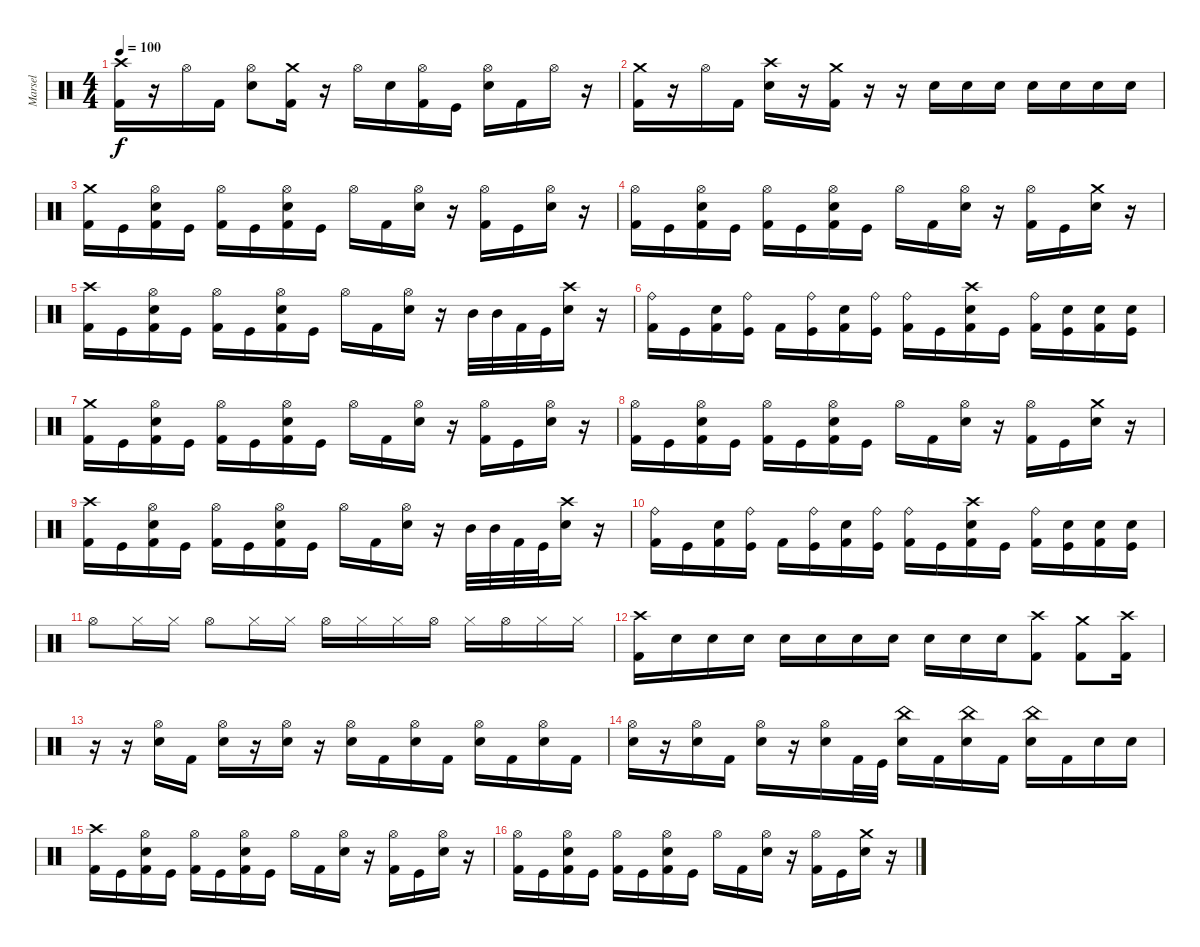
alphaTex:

\track ("Marsel" "Marsel") {instrument percussion}
\staff {score}
\articulation defaults
\ts (4 4)
\tempo 100
\clef neutral
\ks c
("Crash high (hit)" "Kick (hit) 2").16{dy f} r.16 "Hi-Hat (open)".16 "Kick (hit) 2".16 ("Hi-Hat (open)" "Snare (hit) 2").8 ("Crash medium (hit)" "Kick (hit) 2").16 r.16 "Hi-Hat (open)".16 "Snare (hit) 2".16 ("Hi-Hat (open)" "Kick (hit) 2").16 "Kick (hit)".16 ("Hi-Hat (open)" "Snare (hit) 2").16 "Kick (hit) 2".16 "Hi-Hat (open)".16 r.16 |
("Crash medium (hit)" "Kick (hit) 2").16 r.16 "Hi-Hat (open)".16 "Kick (hit) 2".16 ("Crash high (hit)" "Snare (hit) 2").16 r.16 ("Crash medium (hit)" "Kick (hit) 2").16 r.16 r.16 "Snare (hit) 2".16 "Snare (hit) 2".16 "Snare (hit) 2".16 "Snare (hit) 2".16 "Snare (hit) 2".16 "Snare (hit) 2".16 "Snare (hit) 2".16 |
("Crash medium (hit)" "Kick (hit) 2").16 "Kick (hit)".16 ("Hi-Hat (open)" "Snare (hit) 2" "Kick (hit) 2").16 "Kick (hit)".16 ("Hi-Hat (open)" "Kick (hit) 2").16 "Kick (hit)".16 ("Hi-Hat (open)" "Snare (hit) 2" "Kick (hit) 2").16 "Kick (hit)".16 "Hi-Hat (open)".16 "Kick (hit) 2".16 ("Hi-Hat (open)" "Snare (hit) 2").16 r.16 ("Hi-Hat (open)" "Kick (hit) 2").16 "Kick (hit)".16 ("Hi-Hat (open)" "Snare (hit) 2").16 r.16 |
("Hi-Hat (open)" "Kick (hit) 2").16 "Kick (hit)".16 ("Hi-Hat (open)" "Snare (hit) 2" "Kick (hit) 2").16 "Kick (hit)".16 ("Hi-Hat (open)" "Kick (hit) 2").16 "Kick (hit)".16 ("Hi-Hat (open)" "Snare (hit) 2" "Kick (hit) 2").16 "Kick (hit)".16 "Hi-Hat (open)".16 "Kick (hit) 2".16 ("Hi-Hat (open)" "Snare (hit) 2").16 r.16 ("Hi-Hat (open)" "Kick (hit) 2").16 "Kick (hit)".16 ("Crash medium (hit)" "Snare (hit) 2").16 r.16 |
("Crash high (hit)" "Kick (hit) 2").16 "Kick (hit)".16 ("Hi-Hat (open)" "Snare (hit) 2" "Kick (hit) 2").16 "Kick (hit)".16 ("Hi-Hat (open)" "Kick (hit) 2").16 "Kick (hit)".16 ("Hi-Hat (open)" "Snare (hit) 2" "Kick (hit) 2").16 "Kick (hit)".16 "Hi-Hat (open)".16 "Kick (hit) 2".16 ("Hi-Hat (open)" "Snare (hit) 2").16 r.16 "Mid Tom (hit)".32 "Mid Tom (hit)".32 "Kick (hit) 2".32 "Kick (hit)".32 ("Crash high (hit)" "Snare (hit) 2").16 r.16 |
("Ride (bell)" "Kick (hit) 2").16 "Kick (hit)".16 ("Snare (hit) 2" "Kick (hit) 2").16 ("Ride (bell)" "Kick (hit)").16 "Kick (hit) 2".16 ("Ride (bell)" "Kick (hit)").16 ("Snare (hit) 2" "Kick (hit) 2").16 ("Ride (bell)" "Kick (hit)").16 ("Ride (bell)" "Kick (hit) 2").16 "Kick (hit)".16 ("Crash high (hit)" "Snare (hit) 2" "Kick (hit) 2").16 "Kick (hit)".16 ("Ride (bell)" "Kick (hit) 2").16 ("Snare (hit) 2" "Kick (hit)").16 ("Snare (hit) 2" "Kick (hit) 2").16 ("Snare (hit) 2" "Kick (hit)").16 |
("Crash medium (hit)" "Kick (hit) 2").16 "Kick (hit)".16 ("Hi-Hat (open)" "Snare (hit) 2" "Kick (hit) 2").16 "Kick (hit)".16 ("Hi-Hat (open)" "Kick (hit) 2").16 "Kick (hit)".16 ("Hi-Hat (open)" "Snare (hit) 2" "Kick (hit) 2").16 "Kick (hit)".16 "Hi-Hat (open)".16 "Kick (hit) 2".16 ("Hi-Hat (open)" "Snare (hit) 2").16 r.16 ("Hi-Hat (open)" "Kick (hit) 2").16 "Kick (hit)".16 ("Hi-Hat (open)" "Snare (hit) 2").16 r.16 |
("Hi-Hat (open)" "Kick (hit) 2").16 "Kick (hit)".16 ("Hi-Hat (open)" "Snare (hit) 2" "Kick (hit) 2").16 "Kick (hit)".16 ("Hi-Hat (open)" "Kick (hit) 2").16 "Kick (hit)".16 ("Hi-Hat (open)" "Snare (hit) 2" "Kick (hit) 2").16 "Kick (hit)".16 "Hi-Hat (open)".16 "Kick (hit) 2".16 ("Hi-Hat (open)" "Snare (hit) 2").16 r.16 ("Hi-Hat (open)" "Kick (hit) 2").16 "Kick (hit)".16 ("Crash medium (hit)" "Snare (hit) 2").16 r.16 |
("Crash high (hit)" "Kick (hit) 2").16 "Kick (hit)".16 ("Hi-Hat (open)" "Snare (hit) 2" "Kick (hit) 2").16 "Kick (hit)".16 ("Hi-Hat (open)" "Kick (hit) 2").16 "Kick (hit)".16 ("Hi-Hat (open)" "Snare (hit) 2" "Kick (hit) 2").16 "Kick (hit)".16 "Hi-Hat (open)".16 "Kick (hit) 2".16 ("Hi-Hat (open)" "Snare (hit) 2").16 r.16 "Mid Tom (hit)".32 "Mid Tom (hit)".32 "Kick (hit) 2".32 "Kick (hit)".32 ("Crash high (hit)" "Snare (hit) 2").16 r.16 |
("Ride (bell)" "Kick (hit) 2").16 "Kick (hit)".16 ("Snare (hit) 2" "Kick (hit) 2").16 ("Ride (bell)" "Kick (hit)").16 "Kick (hit) 2".16 ("Ride (bell)" "Kick (hit)").16 ("Snare (hit) 2" "Kick (hit) 2").16 ("Ride (bell)" "Kick (hit)").16 ("Ride (bell)" "Kick (hit) 2").16 "Kick (hit)".16 ("Crash high (hit)" "Snare (hit) 2" "Kick (hit) 2").16 "Kick (hit)".16 ("Ride (bell)" "Kick (hit) 2").16 ("Snare (hit) 2" "Kick (hit)").16 ("Snare (hit) 2" "Kick (hit) 2").16 ("Snare (hit) 2" "Kick (hit)").16 |
"Hi-Hat (open)".8 "Hi-Hat (closed)".16 "Hi-Hat (closed)".16 "Hi-Hat (open)".8 "Hi-Hat (closed)".16 "Hi-Hat (closed)".16 "Hi-Hat (open)".16 "Hi-Hat (closed)".16 "Hi-Hat (closed)".16 "Hi-Hat (open)".16 "Hi-Hat (closed)".16 "Hi-Hat (open)".16 "Hi-Hat (closed)".16 "Hi-Hat (closed)".16 |
("Crash high (hit)" "Kick (hit) 2").16 "Snare (hit) 2".16 "Snare (hit) 2".16 "Snare (hit) 2".16 "Snare (hit) 2".16 "Snare (hit) 2".16 "Snare (hit) 2".16 "Snare (hit) 2".16 "Snare (hit) 2".16 "Snare (hit) 2".16 "Snare (hit) 2".16 ("Crash high (hit)" "Kick (hit) 2").8 ("Crash medium (hit)" "Kick (hit) 2").8 ("Crash high (hit)" "Kick (hit) 2").16 |
r.16 r.16 ("Hi-Hat (open)" "Snare (hit) 2").16 "Kick (hit) 2".16 ("Hi-Hat (open)" "Snare (hit) 2").16 r.16 ("Hi-Hat (open)" "Snare (hit) 2").16 r.16 ("Hi-Hat (open)" "Snare (hit) 2").16 "Kick (hit) 2".16 ("Hi-Hat (open)" "Snare (hit) 2").16 "Kick (hit) 2".16 ("Hi-Hat (open)" "Snare (hit) 2").16 "Kick (hit) 2".16 ("Hi-Hat (open)" "Snare (hit) 2").16 "Kick (hit) 2".16 |
("Hi-Hat (open)" "Snare (hit) 2").16 r.16 ("Hi-Hat (open)" "Snare (hit) 2").16 "Kick (hit) 2".16 ("Hi-Hat (open)" "Snare (hit) 2").16 r.16 ("Hi-Hat (open)" "Snare (hit) 2").16 "Kick (hit) 2".32 "Kick (hit)".32 ("China (hit)" "Snare (hit) 2").16 "Kick (hit) 2".16 ("China (hit)" "Snare (hit) 2").16 "Kick (hit) 2".16 ("China (hit)" "Snare (hit) 2").16 "Kick (hit) 2".16 "Snare (hit) 2".16 "Snare (hit) 2".16 |
("Crash high (hit)" "Kick (hit) 2").16 "Kick (hit)".16 ("Hi-Hat (open)" "Snare (hit) 2" "Kick (hit) 2").16 "Kick (hit)".16 ("Hi-Hat (open)" "Kick (hit) 2").16 "Kick (hit)".16 ("Hi-Hat (open)" "Snare (hit) 2" "Kick (hit) 2").16 "Kick (hit)".16 "Hi-Hat (open)".16 "Kick (hit) 2".16 ("Hi-Hat (open)" "Snare (hit) 2").16 r.16 ("Hi-Hat (open)" "Kick (hit) 2").16 "Kick (hit)".16 ("Hi-Hat (open)" "Snare (hit) 2").16 r.16 |
("Hi-Hat (open)" "Kick (hit) 2").16 "Kick (hit)".16 ("Hi-Hat (open)" "Snare (hit) 2" "Kick (hit) 2").16 "Kick (hit)".16 ("Hi-Hat (open)" "Kick (hit) 2").16 "Kick (hit)".16 ("Hi-Hat (open)" "Snare (hit) 2" "Kick (hit) 2").16 "Kick (hit)".16 "Hi-Hat (open)".16 "Kick (hit) 2".16 ("Hi-Hat (open)" "Snare (hit) 2").16 r.16 ("Hi-Hat (open)" "Kick (hit) 2").16 "Kick (hit)".16 ("Crash medium (hit)" "Snare (hit) 2").16 r.16
